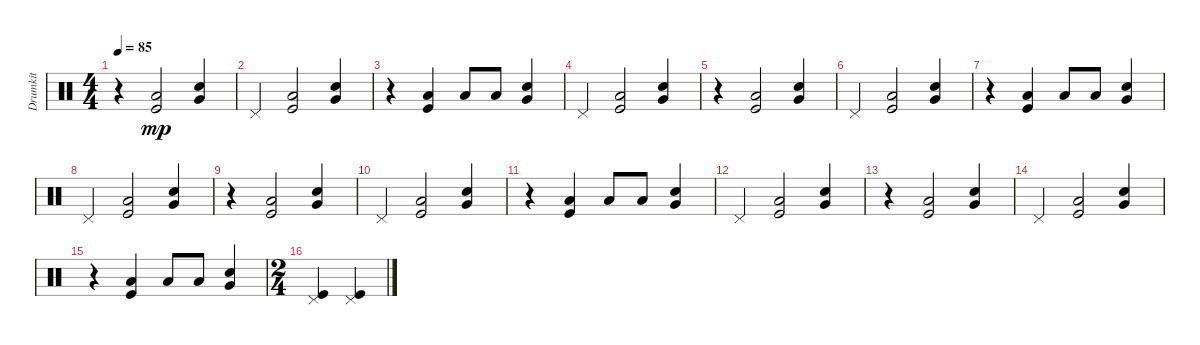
\track ("Drumkit" "Drumkit") {instrument percussion}
\staff {score}
\articulation defaults
\ts (4 4)
\tempo 85
\clef neutral
\ks c
r.4{dy mp} ("Kick (hit)" "Low Floor Tom (hit)").2 ("Snare (hit) 2" "Very Low Tom (hit)").4 |
"Pedal Hi-Hat (hit)".4 ("Kick (hit)" "Low Floor Tom (hit)").2 ("Snare (hit) 2" "Very Low Tom (hit)").4 |
r.4 ("Kick (hit)" "Low Floor Tom (hit)").4 "Low Floor Tom (hit)".8 "Low Floor Tom (hit)".8 ("Very Low Tom (hit)" "Snare (hit) 2").4 |
"Pedal Hi-Hat (hit)".4 ("Kick (hit)" "Low Floor Tom (hit)").2 ("Snare (hit) 2" "Very Low Tom (hit)").4 |
r.4 ("Kick (hit)" "Low Floor Tom (hit)").2 ("Snare (hit) 2" "Very Low Tom (hit)").4 |
"Pedal Hi-Hat (hit)".4 ("Kick (hit)" "Low Floor Tom (hit)").2 ("Snare (hit) 2" "Very Low Tom (hit)").4 |
r.4 ("Kick (hit)" "Low Floor Tom (hit)").4 "Low Floor Tom (hit)".8 "Low Floor Tom (hit)".8 ("Very Low Tom (hit)" "Snare (hit) 2").4 |
"Pedal Hi-Hat (hit)".4 ("Kick (hit)" "Low Floor Tom (hit)").2 ("Snare (hit) 2" "Very Low Tom (hit)").4 |
r.4 ("Kick (hit)" "Low Floor Tom (hit)").2 ("Snare (hit) 2" "Very Low Tom (hit)").4 |
"Pedal Hi-Hat (hit)".4 ("Kick (hit)" "Low Floor Tom (hit)").2 ("Snare (hit) 2" "Very Low Tom (hit)").4 |
r.4 ("Kick (hit)" "Low Floor Tom (hit)").4 "Low Floor Tom (hit)".8 "Low Floor Tom (hit)".8 ("Very Low Tom (hit)" "Snare (hit) 2").4 |
"Pedal Hi-Hat (hit)".4 ("Kick (hit)" "Low Floor Tom (hit)").2 ("Snare (hit) 2" "Very Low Tom (hit)").4 |
r.4 ("Kick (hit)" "Low Floor Tom (hit)").2 ("Snare (hit) 2" "Very Low Tom (hit)").4 |
"Pedal Hi-Hat (hit)".4 ("Kick (hit)" "Low Floor Tom (hit)").2 ("Snare (hit) 2" "Very Low Tom (hit)").4 |
r.4 ("Kick (hit)" "Low Floor Tom (hit)").4 "Low Floor Tom (hit)".8 "Low Floor Tom (hit)".8 ("Very Low Tom (hit)" "Snare (hit) 2").4 |
\ts (2 4)
("Kick (hit)" "Pedal Hi-Hat (hit)").4 ("Kick (hit)" "Pedal Hi-Hat (hit)").4
